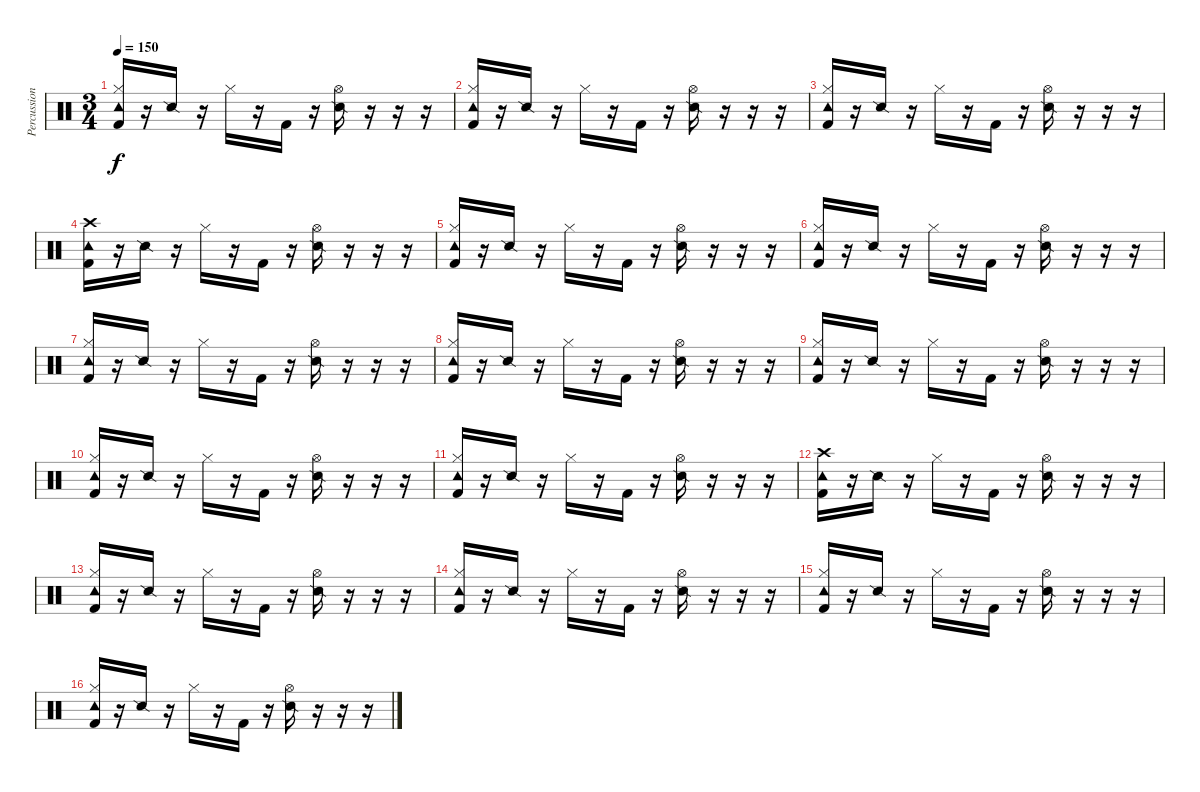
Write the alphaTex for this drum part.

\track ("Percussion" "Percussion") {instrument percussion}
\staff {score}
\articulation defaults
\ts (3 4)
\tempo 150
\clef neutral
\ks c
("Tambourine (hit)" "Hi-Hat (closed)" "Kick (hit) 2").16{dy f} r.16 "Snare (side stick) 2".16 r.16 "Hi-Hat (closed)".16 r.16 "Kick (hit) 2".16 r.16 ("Hi-Hat (open)" "Snare (side stick) 2").16 r.16 r.16 r.16 |
("Tambourine (hit)" "Hi-Hat (closed)" "Kick (hit) 2").16 r.16 "Snare (side stick) 2".16 r.16 "Hi-Hat (closed)".16 r.16 "Kick (hit) 2".16 r.16 ("Hi-Hat (open)" "Snare (side stick) 2").16 r.16 r.16 r.16 |
("Tambourine (hit)" "Hi-Hat (closed)" "Kick (hit) 2").16 r.16 "Snare (side stick) 2".16 r.16 "Hi-Hat (closed)".16 r.16 "Kick (hit) 2".16 r.16 ("Hi-Hat (open)" "Snare (side stick) 2").16 r.16 r.16 r.16 |
("Tambourine (hit)" "Crash high (hit)" "Kick (hit) 2").16 r.16 "Snare (side stick) 2".16 r.16 "Hi-Hat (closed)".16 r.16 "Kick (hit) 2".16 r.16 ("Hi-Hat (open)" "Snare (side stick) 2").16 r.16 r.16 r.16 |
("Tambourine (hit)" "Hi-Hat (closed)" "Kick (hit) 2").16 r.16 "Snare (side stick) 2".16 r.16 "Hi-Hat (closed)".16 r.16 "Kick (hit) 2".16 r.16 ("Hi-Hat (open)" "Snare (side stick) 2").16 r.16 r.16 r.16 |
("Tambourine (hit)" "Hi-Hat (closed)" "Kick (hit) 2").16 r.16 "Snare (side stick) 2".16 r.16 "Hi-Hat (closed)".16 r.16 "Kick (hit) 2".16 r.16 ("Hi-Hat (open)" "Snare (side stick) 2").16 r.16 r.16 r.16 |
("Tambourine (hit)" "Hi-Hat (closed)" "Kick (hit) 2").16 r.16 "Snare (side stick) 2".16 r.16 "Hi-Hat (closed)".16 r.16 "Kick (hit) 2".16 r.16 ("Hi-Hat (open)" "Snare (side stick) 2").16 r.16 r.16 r.16 |
("Tambourine (hit)" "Hi-Hat (closed)" "Kick (hit) 2").16 r.16 "Snare (side stick) 2".16 r.16 "Hi-Hat (closed)".16 r.16 "Kick (hit) 2".16 r.16 ("Hi-Hat (open)" "Snare (side stick) 2").16 r.16 r.16 r.16 |
("Tambourine (hit)" "Hi-Hat (closed)" "Kick (hit) 2").16 r.16 "Snare (side stick) 2".16 r.16 "Hi-Hat (closed)".16 r.16 "Kick (hit) 2".16 r.16 ("Hi-Hat (open)" "Snare (side stick) 2").16 r.16 r.16 r.16 |
("Tambourine (hit)" "Hi-Hat (closed)" "Kick (hit) 2").16 r.16 "Snare (side stick) 2".16 r.16 "Hi-Hat (closed)".16 r.16 "Kick (hit) 2".16 r.16 ("Hi-Hat (open)" "Snare (side stick) 2").16 r.16 r.16 r.16 |
("Tambourine (hit)" "Hi-Hat (closed)" "Kick (hit) 2").16 r.16 "Snare (side stick) 2".16 r.16 "Hi-Hat (closed)".16 r.16 "Kick (hit) 2".16 r.16 ("Hi-Hat (open)" "Snare (side stick) 2").16 r.16 r.16 r.16 |
("Tambourine (hit)" "Crash high (hit)" "Kick (hit) 2").16 r.16 "Snare (side stick) 2".16 r.16 "Hi-Hat (closed)".16 r.16 "Kick (hit) 2".16 r.16 ("Hi-Hat (open)" "Snare (side stick) 2").16 r.16 r.16 r.16 |
("Tambourine (hit)" "Hi-Hat (closed)" "Kick (hit) 2").16 r.16 "Snare (side stick) 2".16 r.16 "Hi-Hat (closed)".16 r.16 "Kick (hit) 2".16 r.16 ("Hi-Hat (open)" "Snare (side stick) 2").16 r.16 r.16 r.16 |
("Tambourine (hit)" "Hi-Hat (closed)" "Kick (hit) 2").16 r.16 "Snare (side stick) 2".16 r.16 "Hi-Hat (closed)".16 r.16 "Kick (hit) 2".16 r.16 ("Hi-Hat (open)" "Snare (side stick) 2").16 r.16 r.16 r.16 |
("Tambourine (hit)" "Hi-Hat (closed)" "Kick (hit) 2").16 r.16 "Snare (side stick) 2".16 r.16 "Hi-Hat (closed)".16 r.16 "Kick (hit) 2".16 r.16 ("Hi-Hat (open)" "Snare (side stick) 2").16 r.16 r.16 r.16 |
("Tambourine (hit)" "Hi-Hat (closed)" "Kick (hit) 2").16 r.16 "Snare (side stick) 2".16 r.16 "Hi-Hat (closed)".16 r.16 "Kick (hit) 2".16 r.16 ("Hi-Hat (open)" "Snare (side stick) 2").16 r.16 r.16 r.16
